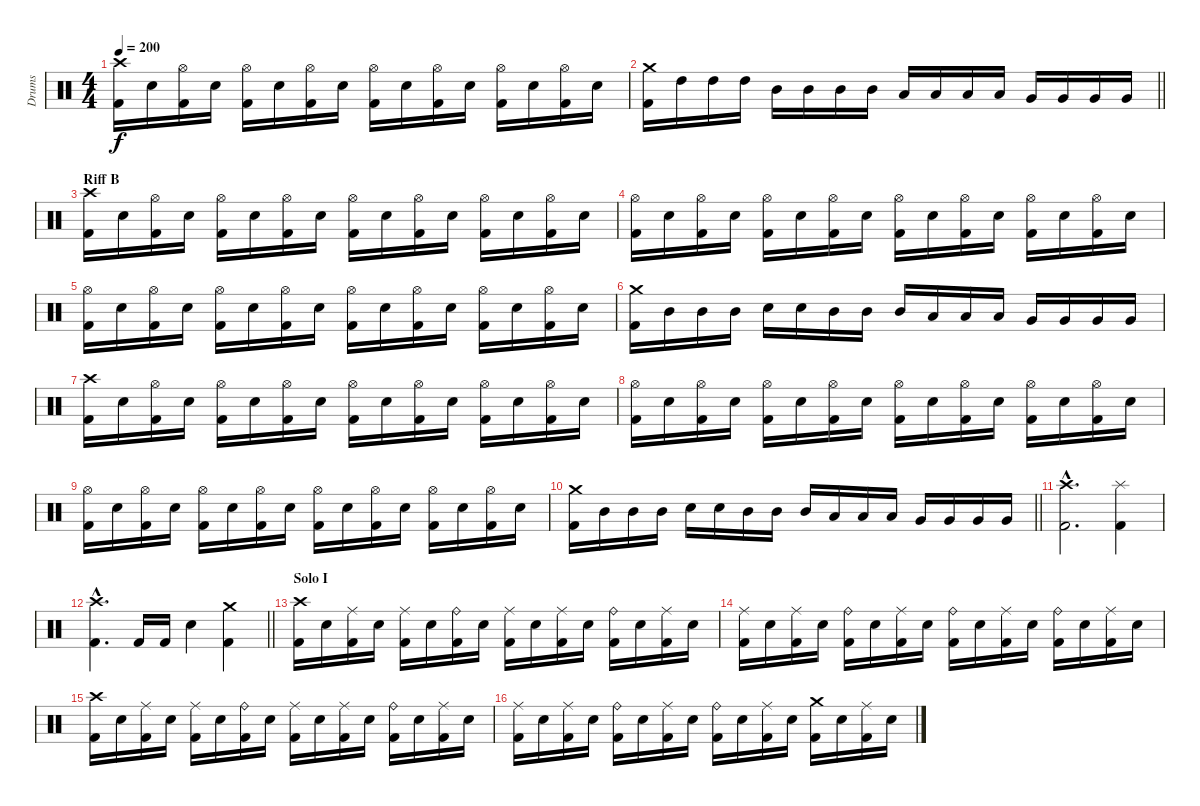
\track ("Drums" "Drums") {instrument percussion}
\staff {score}
\articulation defaults
\ts (4 4)
\tempo 200
\clef neutral
\ks c
("Crash high (hit)" "Kick (hit) 2").16{dy f} "Electric Snare (hit)".16 ("Hi-Hat (open)" "Kick (hit) 2").16 "Electric Snare (hit)".16 ("Hi-Hat (open)" "Kick (hit) 2").16 "Electric Snare (hit)".16 ("Hi-Hat (open)" "Kick (hit) 2").16 "Electric Snare (hit)".16 ("Hi-Hat (open)" "Kick (hit) 2").16 "Electric Snare (hit)".16 ("Hi-Hat (open)" "Kick (hit) 2").16 "Electric Snare (hit)".16 ("Hi-Hat (open)" "Kick (hit) 2").16 "Electric Snare (hit)".16 ("Hi-Hat (open)" "Kick (hit) 2").16 "Electric Snare (hit)".16 |
\barLineRight lightlight
("Crash medium (hit)" "Kick (hit) 2").16 "High Tom (hit)".16 "High Tom (hit)".16 "High Tom (hit)".16 "Mid Tom (hit)".16 "Mid Tom (hit)".16 "Mid Tom (hit)".16 "Mid Tom (hit)".16 "Low Tom (hit)".16 "Low Tom (hit)".16 "Low Tom (hit)".16 "Low Tom (hit)".16 "Very Low Tom (hit)".16 "Very Low Tom (hit)".16 "Very Low Tom (hit)".16 "Very Low Tom (hit)".16 |
\section ("" "Riff B")
("Crash high (hit)" "Kick (hit) 2").16 "Electric Snare (hit)".16 ("Hi-Hat (open)" "Kick (hit) 2").16 "Electric Snare (hit)".16 ("Hi-Hat (open)" "Kick (hit) 2").16 "Electric Snare (hit)".16 ("Hi-Hat (open)" "Kick (hit) 2").16 "Electric Snare (hit)".16 ("Hi-Hat (open)" "Kick (hit) 2").16 "Electric Snare (hit)".16 ("Hi-Hat (open)" "Kick (hit) 2").16 "Electric Snare (hit)".16 ("Hi-Hat (open)" "Kick (hit) 2").16 "Electric Snare (hit)".16 ("Hi-Hat (open)" "Kick (hit) 2").16 "Electric Snare (hit)".16 |
("Hi-Hat (open)" "Kick (hit) 2").16 "Electric Snare (hit)".16 ("Hi-Hat (open)" "Kick (hit) 2").16 "Electric Snare (hit)".16 ("Hi-Hat (open)" "Kick (hit) 2").16 "Electric Snare (hit)".16 ("Hi-Hat (open)" "Kick (hit) 2").16 "Electric Snare (hit)".16 ("Hi-Hat (open)" "Kick (hit) 2").16 "Electric Snare (hit)".16 ("Hi-Hat (open)" "Kick (hit) 2").16 "Electric Snare (hit)".16 ("Hi-Hat (open)" "Kick (hit) 2").16 "Electric Snare (hit)".16 ("Hi-Hat (open)" "Kick (hit) 2").16 "Electric Snare (hit)".16 |
("Hi-Hat (open)" "Kick (hit) 2").16 "Electric Snare (hit)".16 ("Hi-Hat (open)" "Kick (hit) 2").16 "Electric Snare (hit)".16 ("Hi-Hat (open)" "Kick (hit) 2").16 "Electric Snare (hit)".16 ("Hi-Hat (open)" "Kick (hit) 2").16 "Electric Snare (hit)".16 ("Hi-Hat (open)" "Kick (hit) 2").16 "Electric Snare (hit)".16 ("Hi-Hat (open)" "Kick (hit) 2").16 "Electric Snare (hit)".16 ("Hi-Hat (open)" "Kick (hit) 2").16 "Electric Snare (hit)".16 ("Hi-Hat (open)" "Kick (hit) 2").16 "Electric Snare (hit)".16 |
("Crash medium (hit)" "Kick (hit) 2").16 "Mid Tom (hit)".16 "Mid Tom (hit)".16 "Mid Tom (hit)".16 "Electric Snare (hit)".16 "Electric Snare (hit)".16 "Mid Tom (hit)".16 "Mid Tom (hit)".16 "Mid Tom (hit)".16 "Low Tom (hit)".16 "Low Tom (hit)".16 "Low Tom (hit)".16 "Very Low Tom (hit)".16 "Very Low Tom (hit)".16 "Very Low Tom (hit)".16 "Very Low Tom (hit)".16 |
("Crash high (hit)" "Kick (hit) 2").16 "Electric Snare (hit)".16 ("Hi-Hat (open)" "Kick (hit) 2").16 "Electric Snare (hit)".16 ("Hi-Hat (open)" "Kick (hit) 2").16 "Electric Snare (hit)".16 ("Hi-Hat (open)" "Kick (hit) 2").16 "Electric Snare (hit)".16 ("Hi-Hat (open)" "Kick (hit) 2").16 "Electric Snare (hit)".16 ("Hi-Hat (open)" "Kick (hit) 2").16 "Electric Snare (hit)".16 ("Hi-Hat (open)" "Kick (hit) 2").16 "Electric Snare (hit)".16 ("Hi-Hat (open)" "Kick (hit) 2").16 "Electric Snare (hit)".16 |
("Hi-Hat (open)" "Kick (hit) 2").16 "Electric Snare (hit)".16 ("Hi-Hat (open)" "Kick (hit) 2").16 "Electric Snare (hit)".16 ("Hi-Hat (open)" "Kick (hit) 2").16 "Electric Snare (hit)".16 ("Hi-Hat (open)" "Kick (hit) 2").16 "Electric Snare (hit)".16 ("Hi-Hat (open)" "Kick (hit) 2").16 "Electric Snare (hit)".16 ("Hi-Hat (open)" "Kick (hit) 2").16 "Electric Snare (hit)".16 ("Hi-Hat (open)" "Kick (hit) 2").16 "Electric Snare (hit)".16 ("Hi-Hat (open)" "Kick (hit) 2").16 "Electric Snare (hit)".16 |
("Hi-Hat (open)" "Kick (hit) 2").16 "Electric Snare (hit)".16 ("Hi-Hat (open)" "Kick (hit) 2").16 "Electric Snare (hit)".16 ("Hi-Hat (open)" "Kick (hit) 2").16 "Electric Snare (hit)".16 ("Hi-Hat (open)" "Kick (hit) 2").16 "Electric Snare (hit)".16 ("Hi-Hat (open)" "Kick (hit) 2").16 "Electric Snare (hit)".16 ("Hi-Hat (open)" "Kick (hit) 2").16 "Electric Snare (hit)".16 ("Hi-Hat (open)" "Kick (hit) 2").16 "Electric Snare (hit)".16 ("Hi-Hat (open)" "Kick (hit) 2").16 "Electric Snare (hit)".16 |
\barLineRight lightlight
("Crash medium (hit)" "Kick (hit) 2").16 "Mid Tom (hit)".16 "Mid Tom (hit)".16 "Mid Tom (hit)".16 "Electric Snare (hit)".16 "Electric Snare (hit)".16 "Mid Tom (hit)".16 "Mid Tom (hit)".16 "Mid Tom (hit)".16 "Low Tom (hit)".16 "Low Tom (hit)".16 "Low Tom (hit)".16 "Very Low Tom (hit)".16 "Very Low Tom (hit)".16 "Very Low Tom (hit)".16 "Very Low Tom (hit)".16 |
\section ("" "")
("Crash high (hit)"{hac} "Kick (hit) 2"{hac}).2{d} ("Splash (hit)" "Kick (hit) 2").4 |
\barLineRight lightlight
("Crash high (hit)"{hac} "Kick (hit) 2"{hac}).4{d} "Kick (hit) 2".16 "Kick (hit) 2".16 "Electric Snare (hit)".4 ("Crash medium (hit)" "Kick (hit) 2").4 |
\section ("" "Solo I")
("Crash high (hit)" "Kick (hit) 2").16 "Electric Snare (hit)".16 ("Ride (middle)" "Kick (hit) 2").16 "Electric Snare (hit)".16 ("Ride (middle)" "Kick (hit) 2").16 "Electric Snare (hit)".16 ("Ride (bell)" "Kick (hit) 2").16 "Electric Snare (hit)".16 ("Ride (middle)" "Kick (hit) 2").16 "Electric Snare (hit)".16 ("Ride (middle)" "Kick (hit) 2").16 "Electric Snare (hit)".16 ("Ride (bell)" "Kick (hit) 2").16 "Electric Snare (hit)".16 ("Ride (middle)" "Kick (hit) 2").16 "Electric Snare (hit)".16 |
("Ride (middle)" "Kick (hit) 2").16 "Electric Snare (hit)".16 ("Ride (middle)" "Kick (hit) 2").16 "Electric Snare (hit)".16 ("Ride (bell)" "Kick (hit) 2").16 "Electric Snare (hit)".16 ("Ride (middle)" "Kick (hit) 2").16 "Electric Snare (hit)".16 ("Ride (bell)" "Kick (hit) 2").16 "Electric Snare (hit)".16 ("Ride (middle)" "Kick (hit) 2").16 "Electric Snare (hit)".16 ("Ride (bell)" "Kick (hit) 2").16 "Electric Snare (hit)".16 ("Ride (middle)" "Kick (hit) 2").16 "Electric Snare (hit)".16 |
("Crash high (hit)" "Kick (hit) 2").16 "Electric Snare (hit)".16 ("Ride (middle)" "Kick (hit) 2").16 "Electric Snare (hit)".16 ("Ride (middle)" "Kick (hit) 2").16 "Electric Snare (hit)".16 ("Ride (bell)" "Kick (hit) 2").16 "Electric Snare (hit)".16 ("Ride (middle)" "Kick (hit) 2").16 "Electric Snare (hit)".16 ("Ride (middle)" "Kick (hit) 2").16 "Electric Snare (hit)".16 ("Ride (bell)" "Kick (hit) 2").16 "Electric Snare (hit)".16 ("Ride (middle)" "Kick (hit) 2").16 "Electric Snare (hit)".16 |
("Ride (middle)" "Kick (hit) 2").16 "Electric Snare (hit)".16 ("Ride (middle)" "Kick (hit) 2").16 "Electric Snare (hit)".16 ("Ride (bell)" "Kick (hit) 2").16 "Electric Snare (hit)".16 ("Ride (middle)" "Kick (hit) 2").16 "Electric Snare (hit)".16 ("Ride (bell)" "Kick (hit) 2").16 "Electric Snare (hit)".16 ("Ride (middle)" "Kick (hit) 2").16 "Electric Snare (hit)".16 ("Crash medium (hit)" "Kick (hit) 2").16 "Electric Snare (hit)".16 ("Ride (middle)" "Kick (hit) 2").16 "Electric Snare (hit)".16
